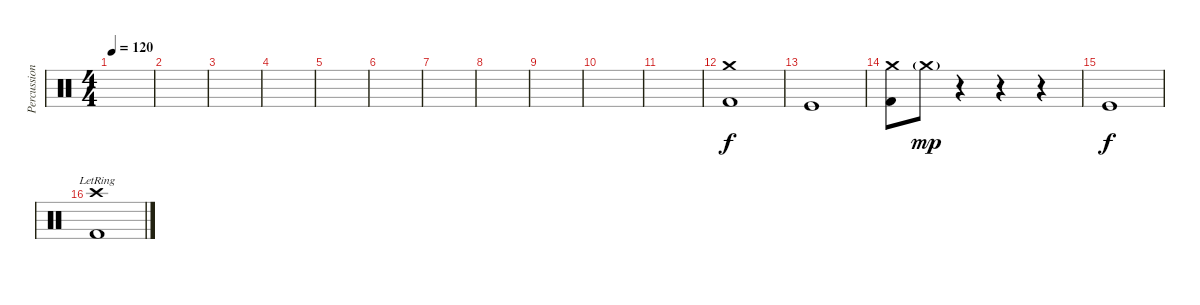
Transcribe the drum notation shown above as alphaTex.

\track ("Percussion" "Percussion") {instrument percussion}
\staff {score}
\articulation defaults
\ts (4 4)
\tempo 120
\clef neutral
\ks c
|
|
|
|
|
|
|
|
|
|
|
("Kick (hit) 2" "Crash medium (hit)").1 |
"Kick (hit)".1 |
("Kick (hit) 2" "Crash medium (hit)").8 "Crash medium (hit)"{g}.8{dy mp} r.4 r.4 r.4 |
"Kick (hit)".1{dy f} |
("Kick (hit) 2" "Crash high (hit)"{lr}).1
